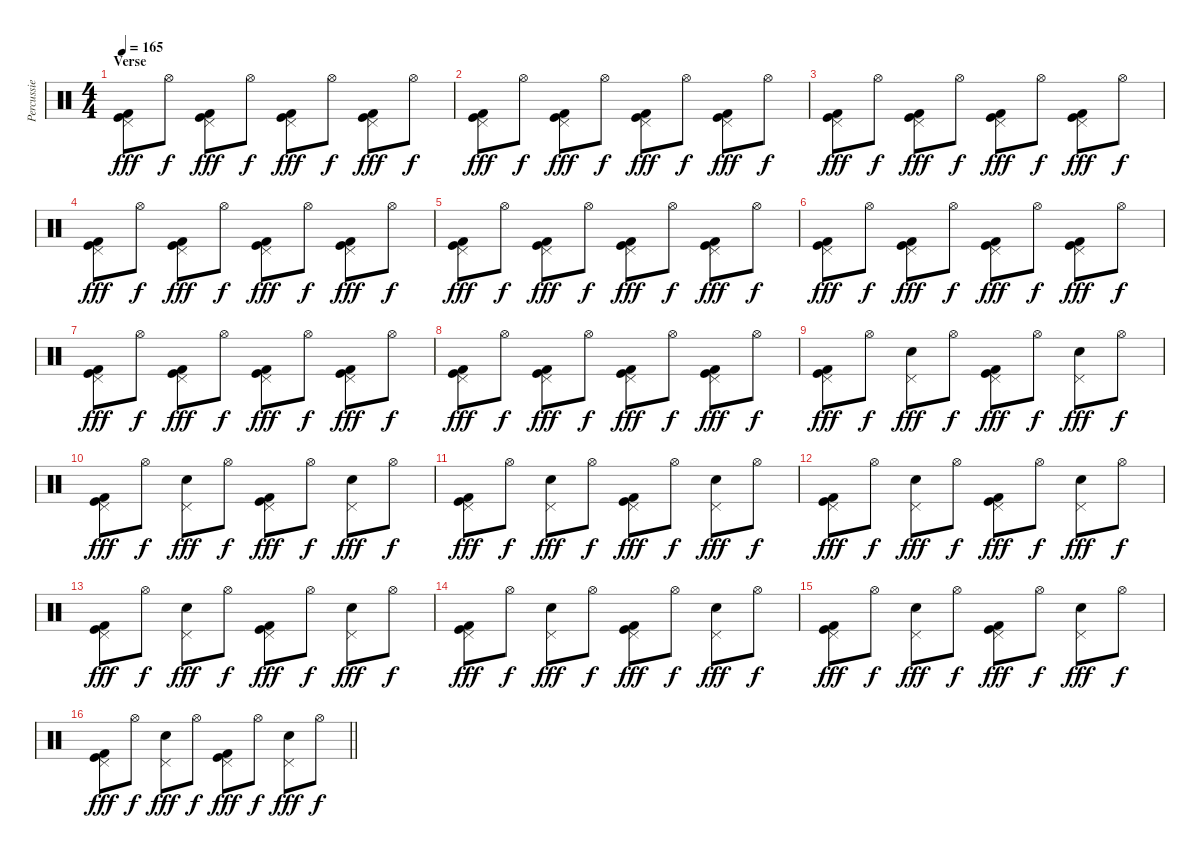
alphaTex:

\track ("Percussie" "Percussie") {instrument percussion}
\staff {score}
\articulation defaults
\ts (4 4)
\section ("" "Verse")
\tempo 165
\clef neutral
\ks c
("Pedal Hi-Hat (hit)" "Kick (hit)" "Kick (hit) 2").8{dy fff} "Hi-Hat (open)".8{dy f} ("Pedal Hi-Hat (hit)" "Kick (hit)" "Kick (hit) 2").8{dy fff} "Hi-Hat (open)".8{dy f} ("Pedal Hi-Hat (hit)" "Kick (hit)" "Kick (hit) 2").8{dy fff} "Hi-Hat (open)".8{dy f} ("Pedal Hi-Hat (hit)" "Kick (hit)" "Kick (hit) 2").8{dy fff} "Hi-Hat (open)".8{dy f} |
("Pedal Hi-Hat (hit)" "Kick (hit)" "Kick (hit) 2").8{dy fff} "Hi-Hat (open)".8{dy f} ("Pedal Hi-Hat (hit)" "Kick (hit)" "Kick (hit) 2").8{dy fff} "Hi-Hat (open)".8{dy f} ("Pedal Hi-Hat (hit)" "Kick (hit)" "Kick (hit) 2").8{dy fff} "Hi-Hat (open)".8{dy f} ("Pedal Hi-Hat (hit)" "Kick (hit)" "Kick (hit) 2").8{dy fff} "Hi-Hat (open)".8{dy f} |
("Pedal Hi-Hat (hit)" "Kick (hit)" "Kick (hit) 2").8{dy fff} "Hi-Hat (open)".8{dy f} ("Pedal Hi-Hat (hit)" "Kick (hit)" "Kick (hit) 2").8{dy fff} "Hi-Hat (open)".8{dy f} ("Pedal Hi-Hat (hit)" "Kick (hit)" "Kick (hit) 2").8{dy fff} "Hi-Hat (open)".8{dy f} ("Pedal Hi-Hat (hit)" "Kick (hit)" "Kick (hit) 2").8{dy fff} "Hi-Hat (open)".8{dy f} |
("Pedal Hi-Hat (hit)" "Kick (hit)" "Kick (hit) 2").8{dy fff} "Hi-Hat (open)".8{dy f} ("Pedal Hi-Hat (hit)" "Kick (hit)" "Kick (hit) 2").8{dy fff} "Hi-Hat (open)".8{dy f} ("Pedal Hi-Hat (hit)" "Kick (hit)" "Kick (hit) 2").8{dy fff} "Hi-Hat (open)".8{dy f} ("Pedal Hi-Hat (hit)" "Kick (hit)" "Kick (hit) 2").8{dy fff} "Hi-Hat (open)".8{dy f} |
("Pedal Hi-Hat (hit)" "Kick (hit)" "Kick (hit) 2").8{dy fff} "Hi-Hat (open)".8{dy f} ("Pedal Hi-Hat (hit)" "Kick (hit)" "Kick (hit) 2").8{dy fff} "Hi-Hat (open)".8{dy f} ("Pedal Hi-Hat (hit)" "Kick (hit)" "Kick (hit) 2").8{dy fff} "Hi-Hat (open)".8{dy f} ("Pedal Hi-Hat (hit)" "Kick (hit)" "Kick (hit) 2").8{dy fff} "Hi-Hat (open)".8{dy f} |
("Pedal Hi-Hat (hit)" "Kick (hit)" "Kick (hit) 2").8{dy fff} "Hi-Hat (open)".8{dy f} ("Pedal Hi-Hat (hit)" "Kick (hit)" "Kick (hit) 2").8{dy fff} "Hi-Hat (open)".8{dy f} ("Pedal Hi-Hat (hit)" "Kick (hit)" "Kick (hit) 2").8{dy fff} "Hi-Hat (open)".8{dy f} ("Pedal Hi-Hat (hit)" "Kick (hit)" "Kick (hit) 2").8{dy fff} "Hi-Hat (open)".8{dy f} |
("Pedal Hi-Hat (hit)" "Kick (hit)" "Kick (hit) 2").8{dy fff} "Hi-Hat (open)".8{dy f} ("Pedal Hi-Hat (hit)" "Kick (hit)" "Kick (hit) 2").8{dy fff} "Hi-Hat (open)".8{dy f} ("Pedal Hi-Hat (hit)" "Kick (hit)" "Kick (hit) 2").8{dy fff} "Hi-Hat (open)".8{dy f} ("Pedal Hi-Hat (hit)" "Kick (hit)" "Kick (hit) 2").8{dy fff} "Hi-Hat (open)".8{dy f} |
("Pedal Hi-Hat (hit)" "Kick (hit)" "Kick (hit) 2").8{dy fff} "Hi-Hat (open)".8{dy f} ("Pedal Hi-Hat (hit)" "Kick (hit)" "Kick (hit) 2").8{dy fff} "Hi-Hat (open)".8{dy f} ("Pedal Hi-Hat (hit)" "Kick (hit)" "Kick (hit) 2").8{dy fff} "Hi-Hat (open)".8{dy f} ("Pedal Hi-Hat (hit)" "Kick (hit)" "Kick (hit) 2").8{dy fff} "Hi-Hat (open)".8{dy f} |
("Pedal Hi-Hat (hit)" "Kick (hit)" "Kick (hit) 2").8{dy fff} "Hi-Hat (open)".8{dy f} ("Pedal Hi-Hat (hit)" "Snare (hit) 2").8{dy fff} "Hi-Hat (open)".8{dy f} ("Pedal Hi-Hat (hit)" "Kick (hit)" "Kick (hit) 2").8{dy fff} "Hi-Hat (open)".8{dy f} ("Pedal Hi-Hat (hit)" "Snare (hit) 2").8{dy fff} "Hi-Hat (open)".8{dy f} |
("Pedal Hi-Hat (hit)" "Kick (hit)" "Kick (hit) 2").8{dy fff} "Hi-Hat (open)".8{dy f} ("Pedal Hi-Hat (hit)" "Snare (hit) 2").8{dy fff} "Hi-Hat (open)".8{dy f} ("Pedal Hi-Hat (hit)" "Kick (hit)" "Kick (hit) 2").8{dy fff} "Hi-Hat (open)".8{dy f} ("Pedal Hi-Hat (hit)" "Snare (hit) 2").8{dy fff} "Hi-Hat (open)".8{dy f} |
("Pedal Hi-Hat (hit)" "Kick (hit)" "Kick (hit) 2").8{dy fff} "Hi-Hat (open)".8{dy f} ("Pedal Hi-Hat (hit)" "Snare (hit) 2").8{dy fff} "Hi-Hat (open)".8{dy f} ("Pedal Hi-Hat (hit)" "Kick (hit)" "Kick (hit) 2").8{dy fff} "Hi-Hat (open)".8{dy f} ("Pedal Hi-Hat (hit)" "Snare (hit) 2").8{dy fff} "Hi-Hat (open)".8{dy f} |
("Pedal Hi-Hat (hit)" "Kick (hit)" "Kick (hit) 2").8{dy fff} "Hi-Hat (open)".8{dy f} ("Pedal Hi-Hat (hit)" "Snare (hit) 2").8{dy fff} "Hi-Hat (open)".8{dy f} ("Pedal Hi-Hat (hit)" "Kick (hit)" "Kick (hit) 2").8{dy fff} "Hi-Hat (open)".8{dy f} ("Pedal Hi-Hat (hit)" "Snare (hit) 2").8{dy fff} "Hi-Hat (open)".8{dy f} |
("Pedal Hi-Hat (hit)" "Kick (hit)" "Kick (hit) 2").8{dy fff} "Hi-Hat (open)".8{dy f} ("Pedal Hi-Hat (hit)" "Snare (hit) 2").8{dy fff} "Hi-Hat (open)".8{dy f} ("Pedal Hi-Hat (hit)" "Kick (hit)" "Kick (hit) 2").8{dy fff} "Hi-Hat (open)".8{dy f} ("Pedal Hi-Hat (hit)" "Snare (hit) 2").8{dy fff} "Hi-Hat (open)".8{dy f} |
("Pedal Hi-Hat (hit)" "Kick (hit)" "Kick (hit) 2").8{dy fff} "Hi-Hat (open)".8{dy f} ("Pedal Hi-Hat (hit)" "Snare (hit) 2").8{dy fff} "Hi-Hat (open)".8{dy f} ("Pedal Hi-Hat (hit)" "Kick (hit)" "Kick (hit) 2").8{dy fff} "Hi-Hat (open)".8{dy f} ("Pedal Hi-Hat (hit)" "Snare (hit) 2").8{dy fff} "Hi-Hat (open)".8{dy f} |
("Pedal Hi-Hat (hit)" "Kick (hit)" "Kick (hit) 2").8{dy fff} "Hi-Hat (open)".8{dy f} ("Pedal Hi-Hat (hit)" "Snare (hit) 2").8{dy fff} "Hi-Hat (open)".8{dy f} ("Pedal Hi-Hat (hit)" "Kick (hit)" "Kick (hit) 2").8{dy fff} "Hi-Hat (open)".8{dy f} ("Pedal Hi-Hat (hit)" "Snare (hit) 2").8{dy fff} "Hi-Hat (open)".8{dy f} |
\barLineRight lightlight
("Pedal Hi-Hat (hit)" "Kick (hit)" "Kick (hit) 2").8{dy fff} "Hi-Hat (open)".8{dy f} ("Pedal Hi-Hat (hit)" "Snare (hit) 2").8{dy fff} "Hi-Hat (open)".8{dy f} ("Pedal Hi-Hat (hit)" "Kick (hit)" "Kick (hit) 2").8{dy fff} "Hi-Hat (open)".8{dy f} ("Pedal Hi-Hat (hit)" "Snare (hit) 2").8{dy fff} "Hi-Hat (open)".8{dy f}
